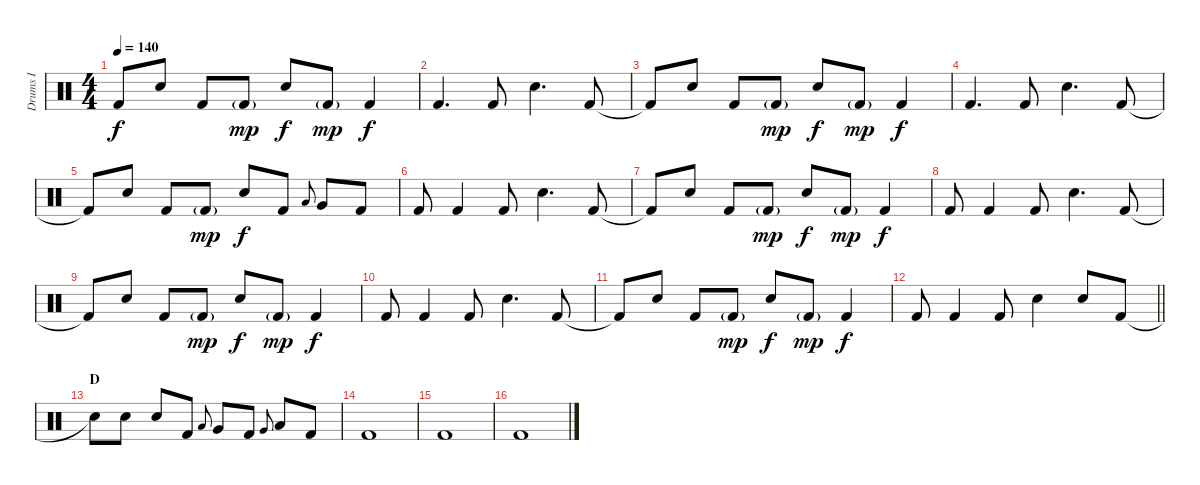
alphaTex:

\track ("Drums I" "Drums I") {instrument percussion}
\staff {score}
\articulation defaults
\ts (4 4)
\tempo 140
\clef neutral
\ks c "Kick (hit) 2"{t}.8{dy f} "Electric Snare (hit)".8 "Kick (hit) 2".8 "Kick (hit) 2"{g}.8{dy mp} "Electric Snare (hit)".8{dy f} "Kick (hit) 2"{g}.8{dy mp} "Kick (hit) 2".4{dy f}
|
"Kick (hit) 2".4{d} "Kick (hit) 2".8 "Electric Snare (hit)".4{d} "Kick (hit) 2".8 |
"Kick (hit) 2"{t}.8 "Electric Snare (hit)".8 "Kick (hit) 2".8 "Kick (hit) 2"{g}.8{dy mp} "Electric Snare (hit)".8{dy f} "Kick (hit) 2"{g}.8{dy mp} "Kick (hit) 2".4{dy f} |
"Kick (hit) 2".4{d} "Kick (hit) 2".8 "Electric Snare (hit)".4{d} "Kick (hit) 2".8 |
"Kick (hit) 2"{t}.8 "Electric Snare (hit)".8 "Kick (hit) 2".8 "Kick (hit) 2"{g}.8{dy mp} "Electric Snare (hit)".8{dy f} "Kick (hit) 2".8 "Low Tom (hit)".8{gr onbeat} "Very Low Tom (hit)".8 "Kick (hit) 2".8 |
"Kick (hit) 2".8 "Kick (hit) 2".4 "Kick (hit) 2".8 "Electric Snare (hit)".4{d} "Kick (hit) 2".8 |
"Kick (hit) 2"{t}.8 "Electric Snare (hit)".8 "Kick (hit) 2".8 "Kick (hit) 2"{g}.8{dy mp} "Electric Snare (hit)".8{dy f} "Kick (hit) 2"{g}.8{dy mp} "Kick (hit) 2".4{dy f} |
"Kick (hit) 2".8 "Kick (hit) 2".4 "Kick (hit) 2".8 "Electric Snare (hit)".4{d} "Kick (hit) 2".8 |
"Kick (hit) 2"{t}.8 "Electric Snare (hit)".8 "Kick (hit) 2".8 "Kick (hit) 2"{g}.8{dy mp} "Electric Snare (hit)".8{dy f} "Kick (hit) 2"{g}.8{dy mp} "Kick (hit) 2".4{dy f} |
"Kick (hit) 2".8 "Kick (hit) 2".4 "Kick (hit) 2".8 "Electric Snare (hit)".4{d} "Kick (hit) 2".8 |
"Kick (hit) 2"{t}.8 "Electric Snare (hit)".8 "Kick (hit) 2".8 "Kick (hit) 2"{g}.8{dy mp} "Electric Snare (hit)".8{dy f} "Kick (hit) 2"{g}.8{dy mp} "Kick (hit) 2".4{dy f} |
\barLineRight lightlight "Kick (hit) 2".8 "Kick (hit) 2".4 "Kick (hit) 2".8 "Electric Snare (hit)".4 "Electric Snare (hit)".8 "Kick (hit) 2".8
|
\section ("" "D")
"Snare (hit)"{t}.8 "Electric Snare (hit)".8 "Electric Snare (hit)".8 "Kick (hit) 2".8 "Low Tom (hit)".8{gr onbeat} "Very Low Tom (hit)".8 "Kick (hit) 2".8 "Very Low Tom (hit)".8{gr onbeat} "Low Floor Tom (hit)".8 "Kick (hit) 2".8 |
"Kick (hit) 2".1 |
"Kick (hit) 2".1 |
"Kick (hit) 2".1
